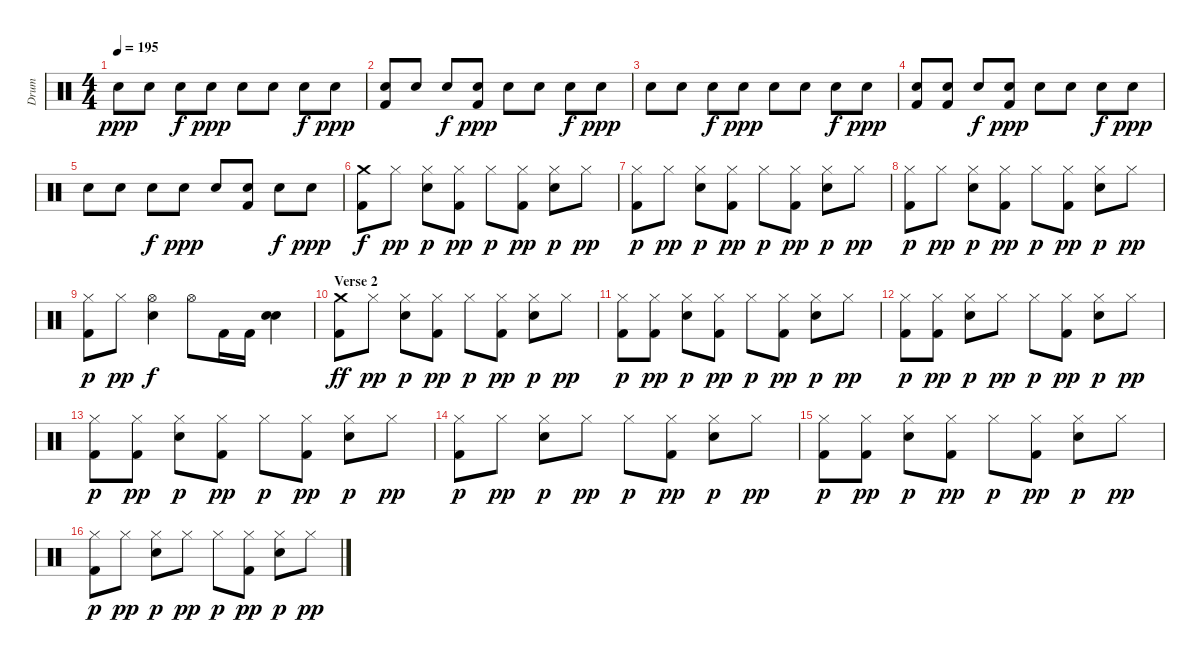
\track ("Drum" "Drum") {instrument percussion}
\staff {score}
\articulation defaults
\ts (4 4)
\tempo 195
\clef neutral
\ks c "Electric Snare (hit)".8{dy ppp} "Electric Snare (hit)".8 "Electric Snare (hit)".8{dy f} "Electric Snare (hit)".8{dy ppp} "Electric Snare (hit)".8 "Electric Snare (hit)".8 "Electric Snare (hit)".8{dy f} "Electric Snare (hit)".8{dy ppp}
|
("Electric Snare (hit)" "Kick (hit) 2").8 "Electric Snare (hit)".8 "Electric Snare (hit)".8{dy f} ("Electric Snare (hit)" "Kick (hit) 2").8{dy ppp} "Electric Snare (hit)".8 "Electric Snare (hit)".8 "Electric Snare (hit)".8{dy f} "Electric Snare (hit)".8{dy ppp} |
"Electric Snare (hit)".8 "Electric Snare (hit)".8 "Electric Snare (hit)".8{dy f} "Electric Snare (hit)".8{dy ppp} "Electric Snare (hit)".8 "Electric Snare (hit)".8 "Electric Snare (hit)".8{dy f} "Electric Snare (hit)".8{dy ppp} |
("Electric Snare (hit)" "Kick (hit) 2").8 ("Electric Snare (hit)" "Kick (hit) 2").8 "Electric Snare (hit)".8{dy f} ("Electric Snare (hit)" "Kick (hit) 2").8{dy ppp} "Electric Snare (hit)".8 "Electric Snare (hit)".8 "Electric Snare (hit)".8{dy f} "Electric Snare (hit)".8{dy ppp} |
"Electric Snare (hit)".8 "Electric Snare (hit)".8 "Electric Snare (hit)".8{dy f} "Electric Snare (hit)".8{dy ppp} "Electric Snare (hit)".8 ("Electric Snare (hit)" "Kick (hit) 2").8 "Electric Snare (hit)".8{dy f} "Electric Snare (hit)".8{dy ppp} |
("Crash medium (hit)" "Kick (hit) 2").8{dy f} "Hi-Hat (closed)".8{dy pp} ("Hi-Hat (closed)" "Electric Snare (hit)").8{dy p} ("Hi-Hat (closed)" "Kick (hit) 2").8{dy pp} "Hi-Hat (closed)".8{dy p} ("Hi-Hat (closed)" "Kick (hit) 2").8{dy pp} ("Hi-Hat (closed)" "Electric Snare (hit)").8{dy p} "Hi-Hat (closed)".8{dy pp} |
("Hi-Hat (closed)" "Kick (hit) 2").8{dy p} "Hi-Hat (closed)".8{dy pp} ("Hi-Hat (closed)" "Electric Snare (hit)").8{dy p} ("Hi-Hat (closed)" "Kick (hit) 2").8{dy pp} "Hi-Hat (closed)".8{dy p} ("Hi-Hat (closed)" "Kick (hit) 2").8{dy pp} ("Hi-Hat (closed)" "Electric Snare (hit)").8{dy p} "Hi-Hat (closed)".8{dy pp} |
("Hi-Hat (closed)" "Kick (hit) 2").8{dy p} "Hi-Hat (closed)".8{dy pp} ("Hi-Hat (closed)" "Electric Snare (hit)").8{dy p} ("Hi-Hat (closed)" "Kick (hit) 2").8{dy pp} "Hi-Hat (closed)".8{dy p} ("Hi-Hat (closed)" "Kick (hit) 2").8{dy pp} ("Hi-Hat (closed)" "Electric Snare (hit)").8{dy p} "Hi-Hat (closed)".8{dy pp} |
("Hi-Hat (closed)" "Kick (hit) 2").8{dy p} "Hi-Hat (closed)".8{dy pp} ("Hi-Hat (open)" "Electric Snare (hit)").4{dy f} "Hi-Hat (open)".8 "Kick (hit) 2".16 "Kick (hit) 2".16 ("Electric Snare (hit)" "Electric Snare (hit)").4 |
\section ("" "Verse 2")
("Crash medium (hit)" "Kick (hit) 2").8{dy ff} "Hi-Hat (closed)".8{dy pp} ("Hi-Hat (closed)" "Electric Snare (hit)").8{dy p} ("Hi-Hat (closed)" "Kick (hit) 2").8{dy pp} "Hi-Hat (closed)".8{dy p} ("Hi-Hat (closed)" "Kick (hit) 2").8{dy pp} ("Hi-Hat (closed)" "Electric Snare (hit)").8{dy p} "Hi-Hat (closed)".8{dy pp} |
("Hi-Hat (closed)" "Kick (hit) 2").8{dy p} ("Hi-Hat (closed)" "Kick (hit) 2").8{dy pp} ("Hi-Hat (closed)" "Electric Snare (hit)").8{dy p} ("Hi-Hat (closed)" "Kick (hit) 2").8{dy pp} "Hi-Hat (closed)".8{dy p} ("Hi-Hat (closed)" "Kick (hit) 2").8{dy pp} ("Hi-Hat (closed)" "Electric Snare (hit)").8{dy p} "Hi-Hat (closed)".8{dy pp} |
("Hi-Hat (closed)" "Kick (hit) 2").8{dy p} ("Hi-Hat (closed)" "Kick (hit) 2").8{dy pp} ("Hi-Hat (closed)" "Electric Snare (hit)").8{dy p} "Hi-Hat (closed)".8{dy pp} "Hi-Hat (closed)".8{dy p} ("Hi-Hat (closed)" "Kick (hit) 2").8{dy pp} ("Hi-Hat (closed)" "Electric Snare (hit)").8{dy p} "Hi-Hat (closed)".8{dy pp} |
("Hi-Hat (closed)" "Kick (hit) 2").8{dy p} ("Hi-Hat (closed)" "Kick (hit) 2").8{dy pp} ("Hi-Hat (closed)" "Electric Snare (hit)").8{dy p} ("Hi-Hat (closed)" "Kick (hit) 2").8{dy pp} "Hi-Hat (closed)".8{dy p} ("Hi-Hat (closed)" "Kick (hit) 2").8{dy pp} ("Hi-Hat (closed)" "Electric Snare (hit)").8{dy p} "Hi-Hat (closed)".8{dy pp} |
("Hi-Hat (closed)" "Kick (hit) 2").8{dy p} "Hi-Hat (closed)".8{dy pp} ("Hi-Hat (closed)" "Electric Snare (hit)").8{dy p} "Hi-Hat (closed)".8{dy pp} "Hi-Hat (closed)".8{dy p} ("Hi-Hat (closed)" "Kick (hit) 2").8{dy pp} ("Hi-Hat (closed)" "Electric Snare (hit)").8{dy p} "Hi-Hat (closed)".8{dy pp} |
("Hi-Hat (closed)" "Kick (hit) 2").8{dy p} ("Hi-Hat (closed)" "Kick (hit) 2").8{dy pp} ("Hi-Hat (closed)" "Electric Snare (hit)").8{dy p} ("Hi-Hat (closed)" "Kick (hit) 2").8{dy pp} "Hi-Hat (closed)".8{dy p} ("Hi-Hat (closed)" "Kick (hit) 2").8{dy pp} ("Hi-Hat (closed)" "Electric Snare (hit)").8{dy p} "Hi-Hat (closed)".8{dy pp} |
("Hi-Hat (closed)" "Kick (hit) 2").8{dy p} "Hi-Hat (closed)".8{dy pp} ("Hi-Hat (closed)" "Electric Snare (hit)").8{dy p} "Hi-Hat (closed)".8{dy pp} "Hi-Hat (closed)".8{dy p} ("Hi-Hat (closed)" "Kick (hit) 2").8{dy pp} ("Hi-Hat (closed)" "Electric Snare (hit)").8{dy p} "Hi-Hat (closed)".8{dy pp}
